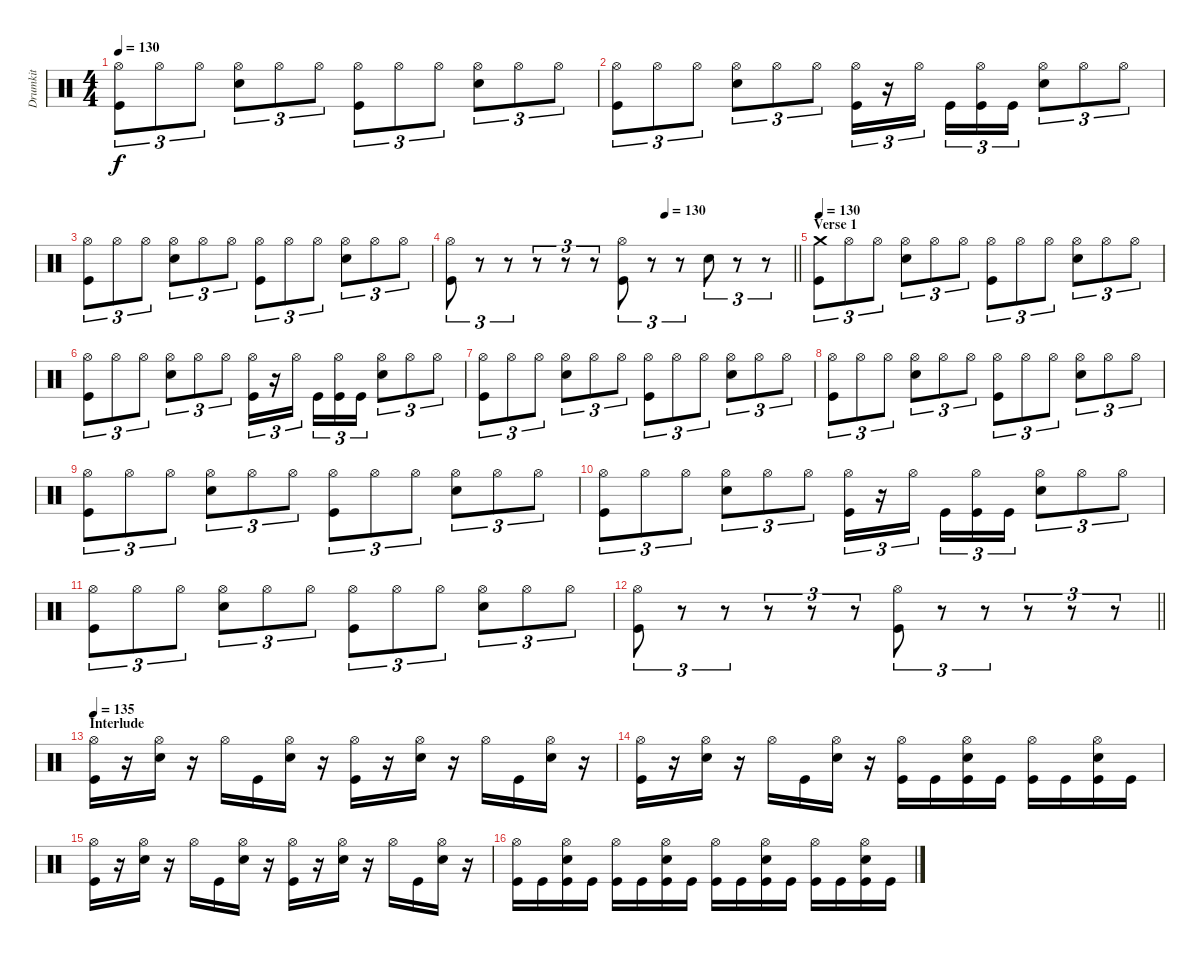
\track ("Drumkit" "Drumkit") {instrument percussion}
\staff {score}
\articulation defaults
\ts (4 4)
\tempo 130
\clef neutral
\ks c
("Hi-Hat (open)" "Kick (hit)").8{tu (3 2) dy f} "Hi-Hat (open)".8{tu (3 2)} "Hi-Hat (open)".8{tu (3 2)} ("Hi-Hat (open)" "Snare (hit) 2").8{tu (3 2)} "Hi-Hat (open)".8{tu (3 2)} "Hi-Hat (open)".8{tu (3 2)} ("Hi-Hat (open)" "Kick (hit)").8{tu (3 2)} "Hi-Hat (open)".8{tu (3 2)} "Hi-Hat (open)".8{tu (3 2)} ("Hi-Hat (open)" "Snare (hit) 2").8{tu (3 2)} "Hi-Hat (open)".8{tu (3 2)} "Hi-Hat (open)".8{tu (3 2)} |
("Hi-Hat (open)" "Kick (hit)").8{tu (3 2)} "Hi-Hat (open)".8{tu (3 2)} "Hi-Hat (open)".8{tu (3 2)} ("Hi-Hat (open)" "Snare (hit) 2").8{tu (3 2)} "Hi-Hat (open)".8{tu (3 2)} "Hi-Hat (open)".8{tu (3 2)} ("Hi-Hat (open)" "Kick (hit)").16{tu (3 2)} r.16{tu (3 2)} "Hi-Hat (open)".16{tu (3 2)} "Kick (hit)".16{tu (3 2)} ("Hi-Hat (open)" "Kick (hit)").16{tu (3 2)} "Kick (hit)".16{tu (3 2)} ("Hi-Hat (open)" "Snare (hit) 2").8{tu (3 2)} "Hi-Hat (open)".8{tu (3 2)} "Hi-Hat (open)".8{tu (3 2)} |
("Hi-Hat (open)" "Kick (hit)").8{tu (3 2)} "Hi-Hat (open)".8{tu (3 2)} "Hi-Hat (open)".8{tu (3 2)} ("Hi-Hat (open)" "Snare (hit) 2").8{tu (3 2)} "Hi-Hat (open)".8{tu (3 2)} "Hi-Hat (open)".8{tu (3 2)} ("Hi-Hat (open)" "Kick (hit)").8{tu (3 2)} "Hi-Hat (open)".8{tu (3 2)} "Hi-Hat (open)".8{tu (3 2)} ("Hi-Hat (open)" "Snare (hit) 2").8{tu (3 2)} "Hi-Hat (open)".8{tu (3 2)} "Hi-Hat (open)".8{tu (3 2)} |
\tempo (130 0.625)
\barLineRight lightlight
("Hi-Hat (open)" "Kick (hit)").8{tu (3 2)} r.8{tu (3 2)} r.8{tu (3 2)} r.8{tu (3 2)} r.8{tu (3 2)} r.8{tu (3 2)} ("Hi-Hat (open)" "Kick (hit)").8{tu (3 2)} r.8{tu (3 2)} r.8{tu (3 2)} "Snare (hit) 2".8{tu (3 2)} r.8{tu (3 2)} r.8{tu (3 2)} |
\section ("" "Verse 1")
\tempo 130
("Crash medium (hit)" "Kick (hit)").8{tu (3 2)} "Hi-Hat (open)".8{tu (3 2)} "Hi-Hat (open)".8{tu (3 2)} ("Hi-Hat (open)" "Snare (hit) 2").8{tu (3 2)} "Hi-Hat (open)".8{tu (3 2)} "Hi-Hat (open)".8{tu (3 2)} ("Hi-Hat (open)" "Kick (hit)").8{tu (3 2)} "Hi-Hat (open)".8{tu (3 2)} "Hi-Hat (open)".8{tu (3 2)} ("Hi-Hat (open)" "Snare (hit) 2").8{tu (3 2)} "Hi-Hat (open)".8{tu (3 2)} "Hi-Hat (open)".8{tu (3 2)} |
("Hi-Hat (open)" "Kick (hit)").8{tu (3 2)} "Hi-Hat (open)".8{tu (3 2)} "Hi-Hat (open)".8{tu (3 2)} ("Hi-Hat (open)" "Snare (hit) 2").8{tu (3 2)} "Hi-Hat (open)".8{tu (3 2)} "Hi-Hat (open)".8{tu (3 2)} ("Hi-Hat (open)" "Kick (hit)").16{tu (3 2)} r.16{tu (3 2)} "Hi-Hat (open)".16{tu (3 2)} "Kick (hit)".16{tu (3 2)} ("Hi-Hat (open)" "Kick (hit)").16{tu (3 2)} "Kick (hit)".16{tu (3 2)} ("Hi-Hat (open)" "Snare (hit) 2").8{tu (3 2)} "Hi-Hat (open)".8{tu (3 2)} "Hi-Hat (open)".8{tu (3 2)} |
("Hi-Hat (open)" "Kick (hit)").8{tu (3 2)} "Hi-Hat (open)".8{tu (3 2)} "Hi-Hat (open)".8{tu (3 2)} ("Hi-Hat (open)" "Snare (hit) 2").8{tu (3 2)} "Hi-Hat (open)".8{tu (3 2)} "Hi-Hat (open)".8{tu (3 2)} ("Hi-Hat (open)" "Kick (hit)").8{tu (3 2)} "Hi-Hat (open)".8{tu (3 2)} "Hi-Hat (open)".8{tu (3 2)} ("Hi-Hat (open)" "Snare (hit) 2").8{tu (3 2)} "Hi-Hat (open)".8{tu (3 2)} "Hi-Hat (open)".8{tu (3 2)} |
("Hi-Hat (open)" "Kick (hit)").8{tu (3 2)} "Hi-Hat (open)".8{tu (3 2)} "Hi-Hat (open)".8{tu (3 2)} ("Hi-Hat (open)" "Snare (hit) 2").8{tu (3 2)} "Hi-Hat (open)".8{tu (3 2)} "Hi-Hat (open)".8{tu (3 2)} ("Hi-Hat (open)" "Kick (hit)").8{tu (3 2)} "Hi-Hat (open)".8{tu (3 2)} "Hi-Hat (open)".8{tu (3 2)} ("Hi-Hat (open)" "Snare (hit) 2").8{tu (3 2)} "Hi-Hat (open)".8{tu (3 2)} "Hi-Hat (open)".8{tu (3 2)} |
("Hi-Hat (open)" "Kick (hit)").8{tu (3 2)} "Hi-Hat (open)".8{tu (3 2)} "Hi-Hat (open)".8{tu (3 2)} ("Hi-Hat (open)" "Snare (hit) 2").8{tu (3 2)} "Hi-Hat (open)".8{tu (3 2)} "Hi-Hat (open)".8{tu (3 2)} ("Hi-Hat (open)" "Kick (hit)").8{tu (3 2)} "Hi-Hat (open)".8{tu (3 2)} "Hi-Hat (open)".8{tu (3 2)} ("Hi-Hat (open)" "Snare (hit) 2").8{tu (3 2)} "Hi-Hat (open)".8{tu (3 2)} "Hi-Hat (open)".8{tu (3 2)} |
("Hi-Hat (open)" "Kick (hit)").8{tu (3 2)} "Hi-Hat (open)".8{tu (3 2)} "Hi-Hat (open)".8{tu (3 2)} ("Hi-Hat (open)" "Snare (hit) 2").8{tu (3 2)} "Hi-Hat (open)".8{tu (3 2)} "Hi-Hat (open)".8{tu (3 2)} ("Hi-Hat (open)" "Kick (hit)").16{tu (3 2)} r.16{tu (3 2)} "Hi-Hat (open)".16{tu (3 2)} "Kick (hit)".16{tu (3 2)} ("Hi-Hat (open)" "Kick (hit)").16{tu (3 2)} "Kick (hit)".16{tu (3 2)} ("Hi-Hat (open)" "Snare (hit) 2").8{tu (3 2)} "Hi-Hat (open)".8{tu (3 2)} "Hi-Hat (open)".8{tu (3 2)} |
("Hi-Hat (open)" "Kick (hit)").8{tu (3 2)} "Hi-Hat (open)".8{tu (3 2)} "Hi-Hat (open)".8{tu (3 2)} ("Hi-Hat (open)" "Snare (hit) 2").8{tu (3 2)} "Hi-Hat (open)".8{tu (3 2)} "Hi-Hat (open)".8{tu (3 2)} ("Hi-Hat (open)" "Kick (hit)").8{tu (3 2)} "Hi-Hat (open)".8{tu (3 2)} "Hi-Hat (open)".8{tu (3 2)} ("Hi-Hat (open)" "Snare (hit) 2").8{tu (3 2)} "Hi-Hat (open)".8{tu (3 2)} "Hi-Hat (open)".8{tu (3 2)} |
\barLineRight lightlight
("Hi-Hat (open)" "Kick (hit)").8{tu (3 2)} r.8{tu (3 2)} r.8{tu (3 2)} r.8{tu (3 2)} r.8{tu (3 2)} r.8{tu (3 2)} ("Hi-Hat (open)" "Kick (hit)").8{tu (3 2)} r.8{tu (3 2)} r.8{tu (3 2)} r.8{tu (3 2)} r.8{tu (3 2)} r.8{tu (3 2)} |
\section ("" "Interlude")
\tempo 135
("Kick (hit)" "Hi-Hat (open)").16 r.16 ("Hi-Hat (open)" "Snare (hit) 2").16 r.16 "Hi-Hat (open)".16 "Kick (hit)".16 ("Hi-Hat (open)" "Snare (hit) 2").16 r.16 ("Kick (hit)" "Hi-Hat (open)").16 r.16 ("Hi-Hat (open)" "Snare (hit) 2").16 r.16 "Hi-Hat (open)".16 "Kick (hit)".16 ("Hi-Hat (open)" "Snare (hit) 2").16 r.16 |
("Kick (hit)" "Hi-Hat (open)").16 r.16 ("Hi-Hat (open)" "Snare (hit) 2").16 r.16 "Hi-Hat (open)".16 "Kick (hit)".16 ("Hi-Hat (open)" "Snare (hit) 2").16 r.16 ("Kick (hit)" "Hi-Hat (open)").16 "Kick (hit)".16 ("Hi-Hat (open)" "Snare (hit) 2" "Kick (hit)").16 "Kick (hit)".16 ("Hi-Hat (open)" "Kick (hit)").16 "Kick (hit)".16 ("Hi-Hat (open)" "Snare (hit) 2" "Kick (hit)").16 "Kick (hit)".16 |
("Kick (hit)" "Hi-Hat (open)").16 r.16 ("Hi-Hat (open)" "Snare (hit) 2").16 r.16 "Hi-Hat (open)".16 "Kick (hit)".16 ("Hi-Hat (open)" "Snare (hit) 2").16 r.16 ("Kick (hit)" "Hi-Hat (open)").16 r.16 ("Hi-Hat (open)" "Snare (hit) 2").16 r.16 "Hi-Hat (open)".16 "Kick (hit)".16 ("Hi-Hat (open)" "Snare (hit) 2").16 r.16 |
("Kick (hit)" "Hi-Hat (open)").16 "Kick (hit)".16 ("Hi-Hat (open)" "Snare (hit) 2" "Kick (hit)").16 "Kick (hit)".16 ("Hi-Hat (open)" "Kick (hit)").16 "Kick (hit)".16 ("Hi-Hat (open)" "Snare (hit) 2" "Kick (hit)").16 "Kick (hit)".16 ("Kick (hit)" "Hi-Hat (open)").16 "Kick (hit)".16 ("Hi-Hat (open)" "Snare (hit) 2" "Kick (hit)").16 "Kick (hit)".16 ("Hi-Hat (open)" "Kick (hit)").16 "Kick (hit)".16 ("Hi-Hat (open)" "Snare (hit) 2" "Kick (hit)").16 "Kick (hit)".16
